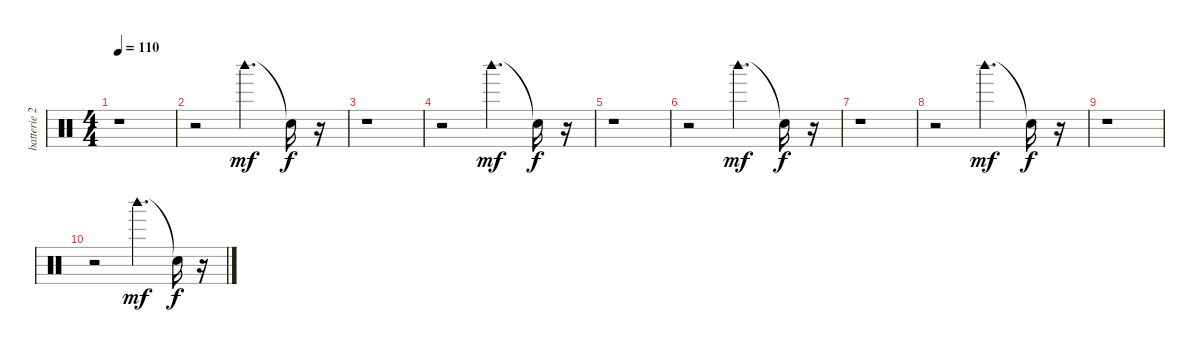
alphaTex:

\track ("batterie 2" "batterie 2") {instrument percussion}
\staff {score}
\articulation defaults
\ts (4 4)
\tempo 110
\clef neutral
\ks c
r.1{dy f} |
r.2 "Woodblock high (hit)".4{d dy mf} "Snare (hit)"{t}.16{dy f} r.16 |
r.1 |
r.2 "Woodblock high (hit)".4{d dy mf} "Snare (hit)"{t}.16{dy f} r.16 |
r.1 |
r.2 "Woodblock high (hit)".4{d dy mf} "Snare (hit)"{t}.16{dy f} r.16 |
r.1 |
r.2 "Woodblock high (hit)".4{d dy mf} "Snare (hit)"{t}.16{dy f} r.16 |
r.1 |
r.2 "Woodblock high (hit)".4{d dy mf} "Snare (hit)"{t}.16{dy f} r.16
